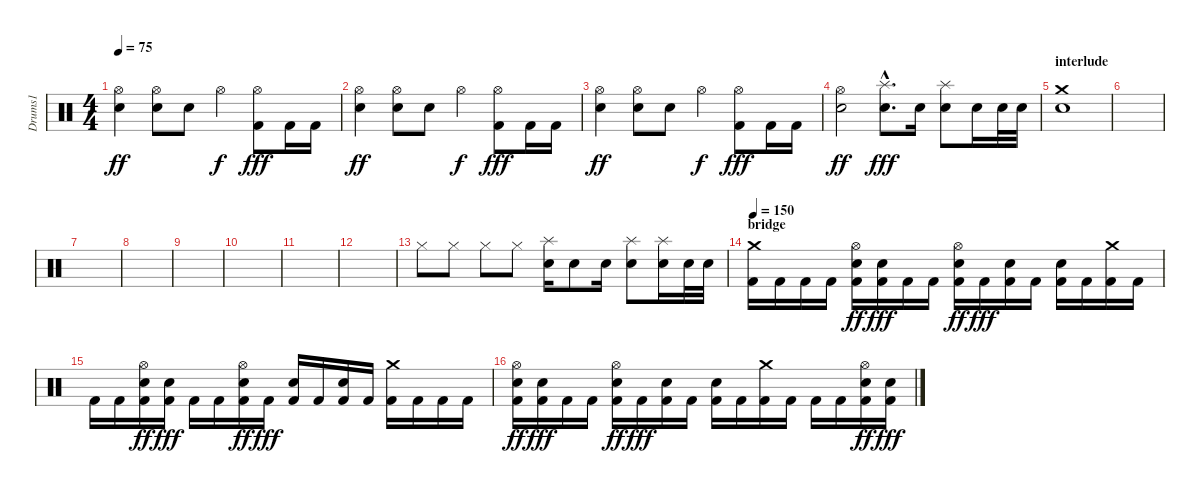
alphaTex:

\track ("Drums1" "Drums1") {instrument percussion}
\staff {score}
\articulation defaults
\ts (4 4)
\tempo 75
\clef neutral
\ks c
("Hi-Hat (open)" "Snare (hit) 2").4{dy ff} ("Hi-Hat (open)" "Snare (hit) 2").8 "Snare (hit) 2".8 "Hi-Hat (open)".4{dy f} ("Hi-Hat (open)" "Kick (hit) 2").8{dy fff} "Kick (hit) 2".16 "Kick (hit) 2".16 |
("Hi-Hat (open)" "Snare (hit) 2").4{dy ff} ("Hi-Hat (open)" "Snare (hit) 2").8 "Snare (hit) 2".8 "Hi-Hat (open)".4{dy f} ("Hi-Hat (open)" "Kick (hit) 2").8{dy fff} "Kick (hit) 2".16 "Kick (hit) 2".16 |
("Hi-Hat (open)" "Snare (hit) 2").4{dy ff} ("Hi-Hat (open)" "Snare (hit) 2").8 "Snare (hit) 2".8 "Hi-Hat (open)".4{dy f} ("Hi-Hat (open)" "Kick (hit) 2").8{dy fff} "Kick (hit) 2".16 "Kick (hit) 2".16 |
("Hi-Hat (open)" "Snare (hit) 2").2{dy ff} ("Splash (hit)"{hac} "Electric Snare (hit)"{hac}).8{d dy fff} "Electric Snare (hit)".16 ("Splash (hit)" "Electric Snare (hit)").8 "Electric Snare (hit)".16 "Electric Snare (hit)".32 "Electric Snare (hit)".32 |
\section ("" "interlude")
("Crash medium (hit)" "Electric Snare (hit)").1 |
|
|
|
|
|
|
|
"Hi-Hat (closed)".8 "Hi-Hat (closed)".8 "Hi-Hat (closed)".8 "Hi-Hat (closed)".8 ("Splash (hit)" "Electric Snare (hit)").16 "Electric Snare (hit)".8 "Electric Snare (hit)".16 ("Electric Snare (hit)" "Splash (hit)").8 ("Electric Snare (hit)" "Splash (hit)").16 "Electric Snare (hit)".32 "Electric Snare (hit)".32 |
\section ("" "bridge")
\tempo 150
("Crash medium (hit)" "Kick (hit) 2").16 "Kick (hit) 2".16 "Kick (hit) 2".16 "Kick (hit) 2".16 ("Electric Snare (hit)" "Kick (hit) 2" "Hi-Hat (open)").16{dy ff} ("Electric Snare (hit)" "Kick (hit) 2").16{dy fff} "Kick (hit) 2".16 "Kick (hit) 2".16 ("Electric Snare (hit)" "Kick (hit) 2" "Hi-Hat (open)").16{dy ff} "Kick (hit) 2".16{dy fff} ("Electric Snare (hit)" "Kick (hit) 2").16 "Kick (hit) 2".16 ("Electric Snare (hit)" "Kick (hit) 2").16 "Kick (hit) 2".16 ("Crash medium (hit)" "Kick (hit) 2").16 "Kick (hit) 2".16 |
"Kick (hit) 2".16 "Kick (hit) 2".16 ("Electric Snare (hit)" "Kick (hit) 2" "Hi-Hat (open)").16{dy ff} ("Electric Snare (hit)" "Kick (hit) 2").16{dy fff} "Kick (hit) 2".16 "Kick (hit) 2".16 ("Electric Snare (hit)" "Kick (hit) 2" "Hi-Hat (open)").16{dy ff} "Kick (hit) 2".16{dy fff} ("Electric Snare (hit)" "Kick (hit) 2").16 "Kick (hit) 2".16 ("Electric Snare (hit)" "Kick (hit) 2").16 "Kick (hit) 2".16 ("Crash medium (hit)" "Kick (hit) 2").16 "Kick (hit) 2".16 "Kick (hit) 2".16 "Kick (hit) 2".16 |
("Electric Snare (hit)" "Kick (hit) 2" "Hi-Hat (open)").16{dy ff} ("Electric Snare (hit)" "Kick (hit) 2").16{dy fff} "Kick (hit) 2".16 "Kick (hit) 2".16 ("Electric Snare (hit)" "Kick (hit) 2" "Hi-Hat (open)").16{dy ff} "Kick (hit) 2".16{dy fff} ("Electric Snare (hit)" "Kick (hit) 2").16 "Kick (hit) 2".16 ("Electric Snare (hit)" "Kick (hit) 2").16 "Kick (hit) 2".16 ("Crash medium (hit)" "Kick (hit) 2").16 "Kick (hit) 2".16 "Kick (hit) 2".16 "Kick (hit) 2".16 ("Electric Snare (hit)" "Kick (hit) 2" "Hi-Hat (open)").16{dy ff} ("Electric Snare (hit)" "Kick (hit) 2").16{dy fff}
